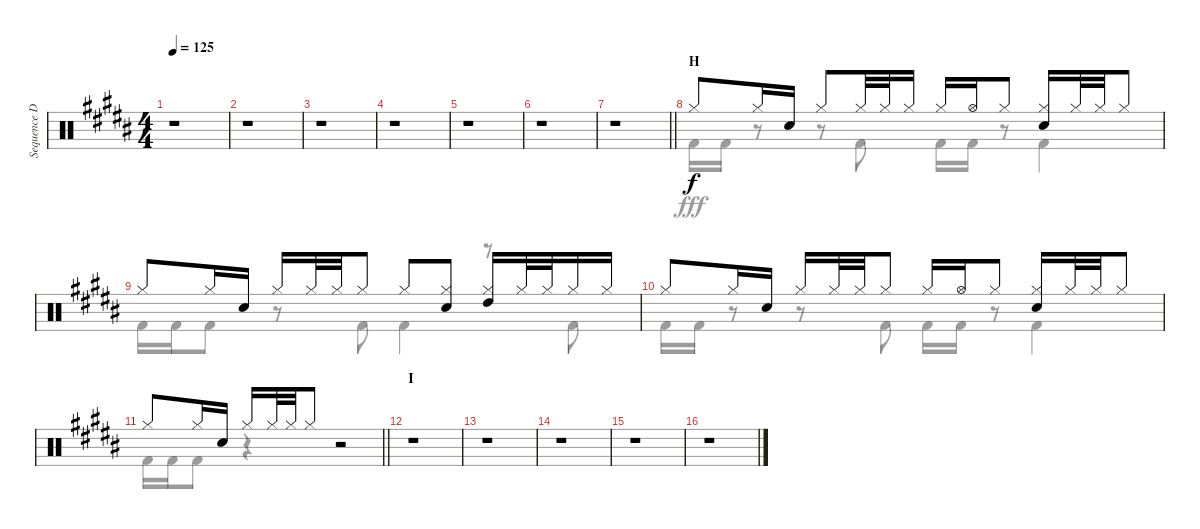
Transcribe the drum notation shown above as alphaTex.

\track ("Sequence Drums" "Sequence D") {instrument percussion}
\staff {score}
\articulation defaults
\voice
\ts (4 4)
\tempo 125
\clef neutral
\ks b
r.1{dy f} |
r.1 |
r.1 |
r.1 |
r.1 |
r.1 |
\barLineRight lightlight
r.1 |
\section ("" "H")
"Hi-Hat (closed)".8 "Hi-Hat (closed)".16 "Snare (hit) 2".16 "Hi-Hat (closed)".8 "Hi-Hat (closed)".32 "Hi-Hat (closed)".32 "Hi-Hat (closed)".16 "Hi-Hat (closed)".16 "Hi-Hat (open)".16 "Hi-Hat (closed)".8 ("Hi-Hat (closed)" "Snare (hit) 2").16 "Hi-Hat (closed)".32 "Hi-Hat (closed)".32 "Hi-Hat (closed)".8 |
"Hi-Hat (closed)".8 "Hi-Hat (closed)".16 "Snare (hit) 2".16 "Hi-Hat (closed)".16 "Hi-Hat (closed)".32 "Hi-Hat (closed)".32 "Hi-Hat (closed)".8 "Hi-Hat (closed)".8 ("Hi-Hat (closed)" "Snare (hit) 2").8 ("Hi-Hat (closed)" "High Tom (hit)").16 "Hi-Hat (closed)".32 "Hi-Hat (closed)".32 "Hi-Hat (closed)".16 "Hi-Hat (closed)".16 |
"Hi-Hat (closed)".8 "Hi-Hat (closed)".16 "Snare (hit) 2".16 "Hi-Hat (closed)".16 "Hi-Hat (closed)".32 "Hi-Hat (closed)".32 "Hi-Hat (closed)".8 "Hi-Hat (closed)".16 "Hi-Hat (open)".16 "Hi-Hat (closed)".8 ("Hi-Hat (closed)" "Snare (hit) 2").16 "Hi-Hat (closed)".32 "Hi-Hat (closed)".32 "Hi-Hat (closed)".8 |
\barLineRight lightlight "Hi-Hat (closed)".8 "Hi-Hat (closed)".16 "Snare (hit) 2".16 "Hi-Hat (closed)".16 "Hi-Hat (closed)".32 "Hi-Hat (closed)".32 "Hi-Hat (closed)".8
r.2 |
\section ("" "I")
r.1 |
r.1 |
r.1 |
r.1 |
r.1
\voice
\clef neutral
\ottava regular
\simile none
\ks b
r.1{dy fff} |
r.1 |
r.1 |
r.1 |
r.1 |
r.1 |
\barLineRight lightlight
r.1 |
"Kick (hit) 2".16 "Kick (hit) 2".16 r.8 r.8 "Kick (hit) 2".8 "Kick (hit) 2".16 "Kick (hit) 2".16 r.8 "Kick (hit) 2".4 |
"Kick (hit) 2".16 "Kick (hit) 2".16 "Kick (hit) 2".8 r.8 "Kick (hit) 2".8 "Kick (hit) 2".4 r.8 "Kick (hit) 2".8 |
"Kick (hit) 2".16 "Kick (hit) 2".16 r.8 r.8 "Kick (hit) 2".8 "Kick (hit) 2".16 "Kick (hit) 2".16 r.8 "Kick (hit) 2".4 |
\barLineRight lightlight "Kick (hit) 2".16 "Kick (hit) 2".16 "Kick (hit) 2".8
r.4 r.2 |
r.1 |
r.1 |
r.1 |
r.1 |
r.1
